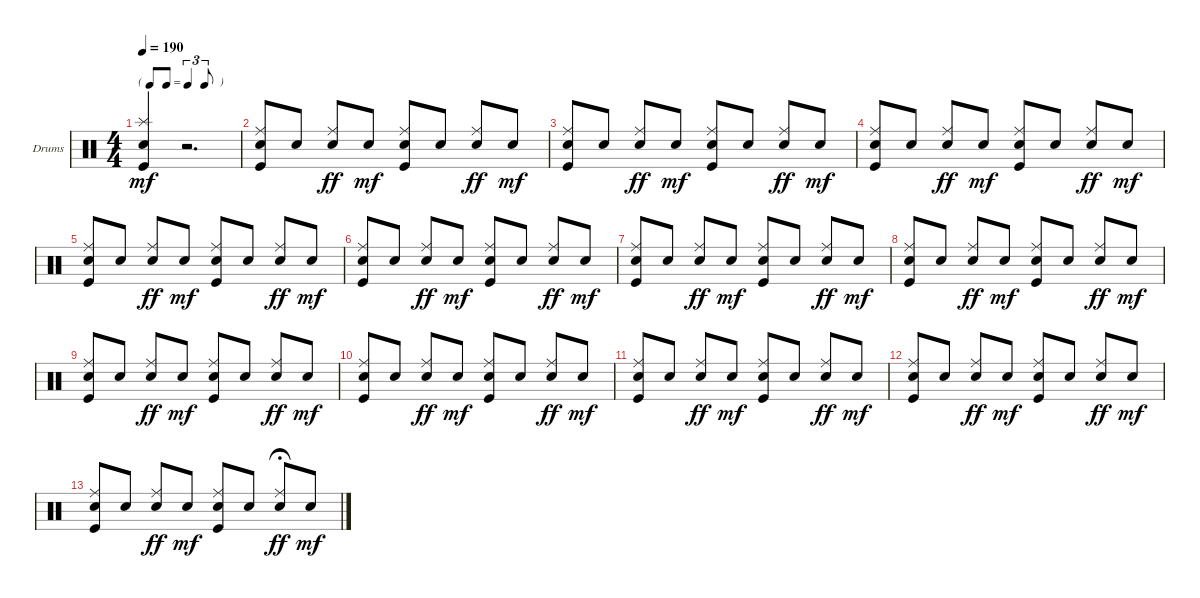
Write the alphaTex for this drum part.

\defaultSystemsLayout 4
\bracketExtendMode groupsimilarinstruments
\firstSystemTrackNameOrientation horizontal
\otherSystemsTrackNameOrientation horizontal
\track ("Drumkit" "Drums") {instrument percussion}
\staff {score}
\articulation defaults
\ts (4 4)
\tf triplet8th
\tempo 190
\clef neutral
\ks c
("Kick (hit)" "Snare (hit) 2" "Splash (hit)").4{dy mf beam invert} r.2{d} |
("Kick (hit)" "Snare (hit) 2" "Ride (middle)").8{beam invert} "Snare (hit) 2".8 ("Snare (hit) 2" "Ride (middle)").8{dy ff beam invert} "Snare (hit) 2".8{dy mf} ("Kick (hit)" "Snare (hit) 2" "Ride (middle)").8{beam invert} "Snare (hit) 2".8 ("Snare (hit) 2" "Ride (middle)").8{dy ff beam invert} "Snare (hit) 2".8{dy mf} |
("Kick (hit)" "Snare (hit) 2" "Ride (middle)").8{beam invert} "Snare (hit) 2".8 ("Snare (hit) 2" "Ride (middle)").8{dy ff beam invert} "Snare (hit) 2".8{dy mf} ("Kick (hit)" "Snare (hit) 2" "Ride (middle)").8{beam invert} "Snare (hit) 2".8 ("Snare (hit) 2" "Ride (middle)").8{dy ff beam invert} "Snare (hit) 2".8{dy mf} |
("Kick (hit)" "Snare (hit) 2" "Ride (middle)").8{beam invert} "Snare (hit) 2".8 ("Snare (hit) 2" "Ride (middle)").8{dy ff beam invert} "Snare (hit) 2".8{dy mf} ("Kick (hit)" "Snare (hit) 2" "Ride (middle)").8{beam invert} "Snare (hit) 2".8 ("Snare (hit) 2" "Ride (middle)").8{dy ff beam invert} "Snare (hit) 2".8{dy mf} |
("Kick (hit)" "Snare (hit) 2" "Ride (middle)").8{beam invert} "Snare (hit) 2".8 ("Snare (hit) 2" "Ride (middle)").8{dy ff beam invert} "Snare (hit) 2".8{dy mf} ("Kick (hit)" "Snare (hit) 2" "Ride (middle)").8{beam invert} "Snare (hit) 2".8 ("Snare (hit) 2" "Ride (middle)").8{dy ff beam invert} "Snare (hit) 2".8{dy mf} |
("Kick (hit)" "Snare (hit) 2" "Ride (middle)").8{beam invert} "Snare (hit) 2".8 ("Snare (hit) 2" "Ride (middle)").8{dy ff beam invert} "Snare (hit) 2".8{dy mf} ("Kick (hit)" "Snare (hit) 2" "Ride (middle)").8{beam invert} "Snare (hit) 2".8 ("Snare (hit) 2" "Ride (middle)").8{dy ff beam invert} "Snare (hit) 2".8{dy mf} |
("Kick (hit)" "Snare (hit) 2" "Ride (middle)").8{beam invert} "Snare (hit) 2".8 ("Snare (hit) 2" "Ride (middle)").8{dy ff beam invert} "Snare (hit) 2".8{dy mf} ("Kick (hit)" "Snare (hit) 2" "Ride (middle)").8{beam invert} "Snare (hit) 2".8 ("Snare (hit) 2" "Ride (middle)").8{dy ff beam invert} "Snare (hit) 2".8{dy mf} |
("Kick (hit)" "Snare (hit) 2" "Ride (middle)").8{beam invert} "Snare (hit) 2".8 ("Snare (hit) 2" "Ride (middle)").8{dy ff beam invert} "Snare (hit) 2".8{dy mf} ("Kick (hit)" "Snare (hit) 2" "Ride (middle)").8{beam invert} "Snare (hit) 2".8 ("Snare (hit) 2" "Ride (middle)").8{dy ff beam invert} "Snare (hit) 2".8{dy mf} |
("Kick (hit)" "Snare (hit) 2" "Ride (middle)").8{beam invert} "Snare (hit) 2".8 ("Snare (hit) 2" "Ride (middle)").8{dy ff beam invert} "Snare (hit) 2".8{dy mf} ("Kick (hit)" "Snare (hit) 2" "Ride (middle)").8{beam invert} "Snare (hit) 2".8 ("Snare (hit) 2" "Ride (middle)").8{dy ff beam invert} "Snare (hit) 2".8{dy mf} |
("Kick (hit)" "Snare (hit) 2" "Ride (middle)").8{beam invert} "Snare (hit) 2".8 ("Snare (hit) 2" "Ride (middle)").8{dy ff beam invert} "Snare (hit) 2".8{dy mf} ("Kick (hit)" "Snare (hit) 2" "Ride (middle)").8{beam invert} "Snare (hit) 2".8 ("Snare (hit) 2" "Ride (middle)").8{dy ff beam invert} "Snare (hit) 2".8{dy mf} |
("Kick (hit)" "Snare (hit) 2" "Ride (middle)").8{beam invert} "Snare (hit) 2".8 ("Snare (hit) 2" "Ride (middle)").8{dy ff beam invert} "Snare (hit) 2".8{dy mf} ("Kick (hit)" "Snare (hit) 2" "Ride (middle)").8{beam invert} "Snare (hit) 2".8 ("Snare (hit) 2" "Ride (middle)").8{dy ff beam invert} "Snare (hit) 2".8{dy mf} |
("Kick (hit)" "Snare (hit) 2" "Ride (middle)").8{beam invert} "Snare (hit) 2".8 ("Snare (hit) 2" "Ride (middle)").8{dy ff beam invert} "Snare (hit) 2".8{dy mf} ("Kick (hit)" "Snare (hit) 2" "Ride (middle)").8{beam invert} "Snare (hit) 2".8 ("Snare (hit) 2" "Ride (middle)").8{dy ff beam invert} "Snare (hit) 2".8{dy mf} |
("Kick (hit)" "Snare (hit) 2" "Ride (middle)").8{beam invert} "Snare (hit) 2".8 ("Snare (hit) 2" "Ride (middle)").8{dy ff beam invert} "Snare (hit) 2".8{dy mf} ("Kick (hit)" "Snare (hit) 2" "Ride (middle)").8{beam invert} "Snare (hit) 2".8 ("Snare (hit) 2" "Ride (middle)").8{dy ff fermata (medium 0.88) beam invert} "Snare (hit) 2".8{dy mf}
